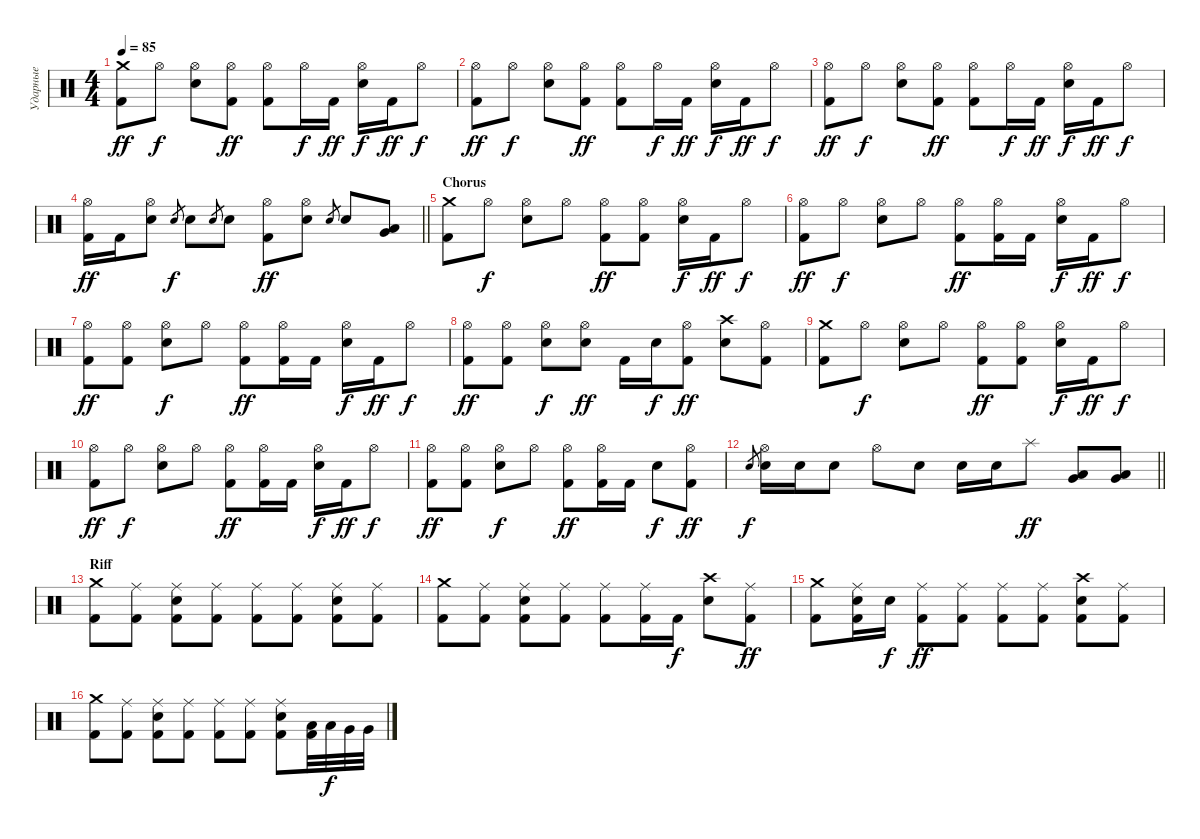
\track ("Ударные" "Ударные") {instrument percussion}
\staff {score}
\articulation defaults
\ts (4 4)
\tempo 85
\clef neutral
\ks c
("Kick (hit) 2" "Crash medium (hit)").8{dy ff} "Hi-Hat (open)".8{dy f} ("Electric Snare (hit)" "Hi-Hat (open)").8 ("Kick (hit) 2" "Hi-Hat (open)").8{dy ff} ("Kick (hit) 2" "Hi-Hat (open)").8 "Hi-Hat (open)".16{dy f} "Kick (hit) 2".16{dy ff} ("Electric Snare (hit)" "Hi-Hat (open)").16{dy f} "Kick (hit) 2".16{dy ff} "Hi-Hat (open)".8{dy f} |
("Kick (hit) 2" "Hi-Hat (open)").8{dy ff} "Hi-Hat (open)".8{dy f} ("Electric Snare (hit)" "Hi-Hat (open)").8 ("Kick (hit) 2" "Hi-Hat (open)").8{dy ff} ("Kick (hit) 2" "Hi-Hat (open)").8 "Hi-Hat (open)".16{dy f} "Kick (hit) 2".16{dy ff} ("Electric Snare (hit)" "Hi-Hat (open)").16{dy f} "Kick (hit) 2".16{dy ff} "Hi-Hat (open)".8{dy f} |
("Kick (hit) 2" "Hi-Hat (open)").8{dy ff} "Hi-Hat (open)".8{dy f} ("Electric Snare (hit)" "Hi-Hat (open)").8 ("Kick (hit) 2" "Hi-Hat (open)").8{dy ff} ("Kick (hit) 2" "Hi-Hat (open)").8 "Hi-Hat (open)".16{dy f} "Kick (hit) 2".16{dy ff} ("Electric Snare (hit)" "Hi-Hat (open)").16{dy f} "Kick (hit) 2".16{dy ff} "Hi-Hat (open)".8{dy f} |
\barLineRight lightlight
("Kick (hit) 2" "Hi-Hat (open)").16{dy ff} "Kick (hit) 2".16 ("Electric Snare (hit)" "Hi-Hat (open)").8 "Electric Snare (hit)".8{gr dy f} "Electric Snare (hit)".8 "Electric Snare (hit)".8{gr} "Electric Snare (hit)".8 ("Kick (hit) 2" "Hi-Hat (open)").8{dy ff} ("Electric Snare (hit)" "Hi-Hat (open)").8 "Electric Snare (hit)".8{gr} "Electric Snare (hit)".8 ("Very Low Tom (hit)" "Low Tom (hit)").8 |
\section ("" "Chorus")
("Kick (hit) 2" "Crash medium (hit)").8 "Hi-Hat (open)".8{dy f} ("Electric Snare (hit)" "Hi-Hat (open)").8 "Hi-Hat (open)".8 ("Kick (hit) 2" "Hi-Hat (open)").8{dy ff} ("Kick (hit) 2" "Hi-Hat (open)").8 ("Electric Snare (hit)" "Hi-Hat (open)").16{dy f} "Kick (hit) 2".16{dy ff} "Hi-Hat (open)".8{dy f} |
("Kick (hit) 2" "Hi-Hat (open)").8{dy ff} "Hi-Hat (open)".8{dy f} ("Electric Snare (hit)" "Hi-Hat (open)").8 "Hi-Hat (open)".8 ("Kick (hit) 2" "Hi-Hat (open)").8{dy ff} ("Kick (hit) 2" "Hi-Hat (open)").16 "Kick (hit) 2".16 ("Electric Snare (hit)" "Hi-Hat (open)").16{dy f} "Kick (hit) 2".16{dy ff} "Hi-Hat (open)".8{dy f} |
("Kick (hit) 2" "Hi-Hat (open)").8{dy ff} ("Kick (hit) 2" "Hi-Hat (open)").8 ("Electric Snare (hit)" "Hi-Hat (open)").8{dy f} "Hi-Hat (open)".8 ("Kick (hit) 2" "Hi-Hat (open)").8{dy ff} ("Kick (hit) 2" "Hi-Hat (open)").16 "Kick (hit) 2".16 ("Electric Snare (hit)" "Hi-Hat (open)").16{dy f} "Kick (hit) 2".16{dy ff} "Hi-Hat (open)".8{dy f} |
("Kick (hit) 2" "Hi-Hat (open)").8{dy ff} ("Kick (hit) 2" "Hi-Hat (open)").8 ("Electric Snare (hit)" "Hi-Hat (open)").8{dy f} ("Electric Snare (hit)" "Hi-Hat (open)").8{dy ff} "Kick (hit) 2".16 "Electric Snare (hit)".16{dy f} ("Kick (hit) 2" "Hi-Hat (open)").8{dy ff} ("Electric Snare (hit)" "Crash high (hit)").8 ("Kick (hit) 2" "Hi-Hat (open)").8 |
("Kick (hit) 2" "Crash medium (hit)").8 "Hi-Hat (open)".8{dy f} ("Electric Snare (hit)" "Hi-Hat (open)").8 "Hi-Hat (open)".8 ("Kick (hit) 2" "Hi-Hat (open)").8{dy ff} ("Kick (hit) 2" "Hi-Hat (open)").8 ("Electric Snare (hit)" "Hi-Hat (open)").16{dy f} "Kick (hit) 2".16{dy ff} "Hi-Hat (open)".8{dy f} |
("Kick (hit) 2" "Hi-Hat (open)").8{dy ff} "Hi-Hat (open)".8{dy f} ("Electric Snare (hit)" "Hi-Hat (open)").8 "Hi-Hat (open)".8 ("Kick (hit) 2" "Hi-Hat (open)").8{dy ff} ("Kick (hit) 2" "Hi-Hat (open)").16 "Kick (hit) 2".16 ("Electric Snare (hit)" "Hi-Hat (open)").16{dy f} "Kick (hit) 2".16{dy ff} "Hi-Hat (open)".8{dy f} |
("Kick (hit) 2" "Hi-Hat (open)").8{dy ff} ("Kick (hit) 2" "Hi-Hat (open)").8 ("Electric Snare (hit)" "Hi-Hat (open)").8{dy f} "Hi-Hat (open)".8 ("Kick (hit) 2" "Hi-Hat (open)").8{dy ff} ("Kick (hit) 2" "Hi-Hat (open)").16 "Kick (hit) 2".16 "Electric Snare (hit)".8{dy f} ("Kick (hit) 2" "Hi-Hat (open)").8{dy ff} |
\barLineRight lightlight "Electric Snare (hit)".8{gr dy f}
("Electric Snare (hit)" "Hi-Hat (open)").16 "Electric Snare (hit)".16 "Electric Snare (hit)".8 "Hi-Hat (open)".8 "Electric Snare (hit)".8 "Electric Snare (hit)".16 "Electric Snare (hit)".16 "Splash (hit)".8{dy ff} ("Very Low Tom (hit)" "Low Tom (hit)").8 ("Very Low Tom (hit)" "Low Tom (hit)").8 |
\section ("" "Riff")
("Kick (hit) 2" "Crash medium (hit)").8 ("Kick (hit) 2" "Ride (middle)").8 ("Kick (hit) 2" "Electric Snare (hit)" "Ride (middle)").8 ("Kick (hit) 2" "Ride (middle)").8 ("Kick (hit) 2" "Ride (middle)").8 ("Kick (hit) 2" "Ride (middle)").8 ("Kick (hit) 2" "Electric Snare (hit)" "Ride (middle)").8 ("Kick (hit) 2" "Ride (middle)").8 |
("Kick (hit) 2" "Crash medium (hit)").8 ("Kick (hit) 2" "Ride (middle)").8 ("Kick (hit) 2" "Electric Snare (hit)" "Ride (middle)").8 ("Kick (hit) 2" "Ride (middle)").8 ("Kick (hit) 2" "Ride (middle)").8 ("Kick (hit) 2" "Ride (middle)").16 "Kick (hit) 2".16{dy f} ("Electric Snare (hit)" "Crash high (hit)").8 ("Kick (hit) 2" "Ride (middle)").8{dy ff} |
("Kick (hit) 2" "Crash medium (hit)").8 ("Kick (hit) 2" "Electric Snare (hit)" "Ride (middle)").16 "Electric Snare (hit)".16{dy f} ("Kick (hit) 2" "Ride (middle)").8{dy ff} ("Kick (hit) 2" "Ride (middle)").8 ("Kick (hit) 2" "Ride (middle)").8 ("Kick (hit) 2" "Ride (middle)").8 ("Kick (hit) 2" "Electric Snare (hit)" "Crash high (hit)").8 ("Kick (hit) 2" "Ride (middle)").8 |
("Kick (hit) 2" "Crash medium (hit)").8 ("Kick (hit) 2" "Ride (middle)").8 ("Kick (hit) 2" "Electric Snare (hit)" "Ride (middle)").8 ("Kick (hit) 2" "Ride (middle)").8 ("Kick (hit) 2" "Ride (middle)").8 ("Kick (hit) 2" "Ride (middle)").8 ("Kick (hit) 2" "Electric Snare (hit)" "Ride (middle)").8 ("Kick (hit) 2" "Low Tom (hit)").32 "Low Tom (hit)".32{dy f} "Very Low Tom (hit)".32 "Very Low Tom (hit)".32
